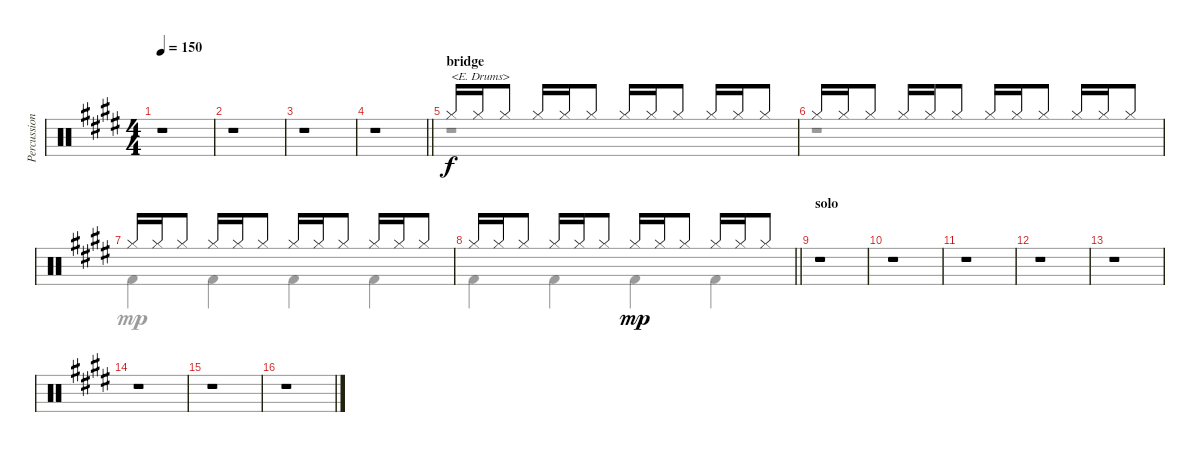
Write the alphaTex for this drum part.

\track ("Percussion" "Percussion") {instrument percussion}
\staff {score}
\articulation defaults
\voice
\ts (4 4)
\tempo 150
\clef neutral
\ks e
r.1{dy f} |
r.1 |
r.1 |
\barLineRight lightlight
r.1 |
\section ("" "bridge")
"Hi-Hat (closed)".16{txt "<E. Drums>"} "Hi-Hat (closed)".16 "Hi-Hat (closed)".8 "Hi-Hat (closed)".16 "Hi-Hat (closed)".16 "Hi-Hat (closed)".8 "Hi-Hat (closed)".16 "Hi-Hat (closed)".16 "Hi-Hat (closed)".8 "Hi-Hat (closed)".16 "Hi-Hat (closed)".16 "Hi-Hat (closed)".8 |
"Hi-Hat (closed)".16 "Hi-Hat (closed)".16 "Hi-Hat (closed)".8 "Hi-Hat (closed)".16 "Hi-Hat (closed)".16 "Hi-Hat (closed)".8 "Hi-Hat (closed)".16 "Hi-Hat (closed)".16 "Hi-Hat (closed)".8 "Hi-Hat (closed)".16 "Hi-Hat (closed)".16 "Hi-Hat (closed)".8 |
"Hi-Hat (closed)".16 "Hi-Hat (closed)".16 "Hi-Hat (closed)".8 "Hi-Hat (closed)".16 "Hi-Hat (closed)".16 "Hi-Hat (closed)".8 "Hi-Hat (closed)".16 "Hi-Hat (closed)".16 "Hi-Hat (closed)".8 "Hi-Hat (closed)".16 "Hi-Hat (closed)".16 "Hi-Hat (closed)".8 |
\barLineRight lightlight "Hi-Hat (closed)".16 "Hi-Hat (closed)".16 "Hi-Hat (closed)".8 "Hi-Hat (closed)".16 "Hi-Hat (closed)".16 "Hi-Hat (closed)".8 "Hi-Hat (closed)".16{dy mp} "Hi-Hat (closed)".16 "Hi-Hat (closed)".8 "Hi-Hat (closed)".16 "Hi-Hat (closed)".16 "Hi-Hat (closed)".8
|
\section ("" "solo")
r.1 |
r.1 |
r.1 |
r.1 |
r.1 |
r.1 |
r.1 |
r.1
\voice
\clef neutral
\ottava regular
\simile none
\ks e
|
|
|
\barLineRight lightlight
|
r.1 |
r.1 |
"Kick (hit) 2".4 "Kick (hit) 2".4 "Kick (hit) 2".4 "Kick (hit) 2".4 |
\barLineRight lightlight "Kick (hit) 2".4 "Kick (hit) 2".4 "Kick (hit) 2".4{dy mp} "Kick (hit) 2".4
|
|
|
|
|
|
|
|
